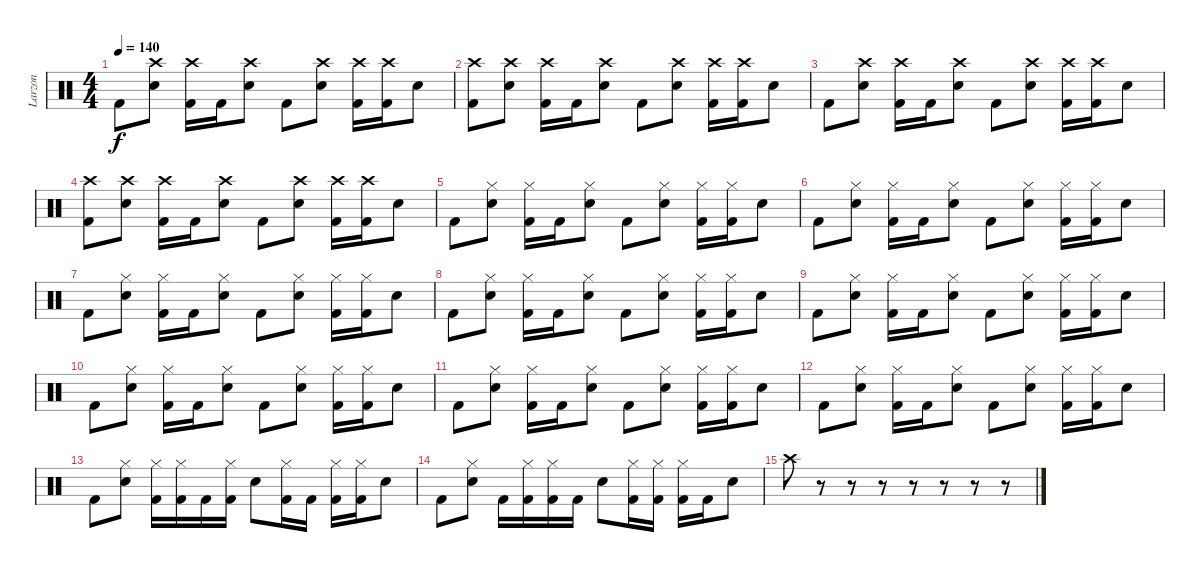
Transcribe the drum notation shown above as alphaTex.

\track ("Larzon" "Larzon") {instrument percussion}
\staff {score}
\articulation defaults
\ts (4 4)
\tempo 140
\clef neutral
\ks c "Kick (hit) 2".8{dy f}
("Crash high (hit)" "Snare (hit) 2").8 ("Crash high (hit)" "Kick (hit) 2").16 "Kick (hit) 2".16 ("Crash high (hit)" "Snare (hit) 2").8 "Kick (hit) 2".8 ("Crash high (hit)" "Snare (hit) 2").8 ("Crash high (hit)" "Kick (hit) 2").16 ("Crash high (hit)" "Kick (hit) 2").16 "Snare (hit) 2".8 |
("Crash high (hit)" "Kick (hit) 2").8 ("Crash high (hit)" "Snare (hit) 2").8 ("Crash high (hit)" "Kick (hit) 2").16 "Kick (hit) 2".16 ("Crash high (hit)" "Snare (hit) 2").8 "Kick (hit) 2".8 ("Crash high (hit)" "Snare (hit) 2").8 ("Crash high (hit)" "Kick (hit) 2").16 ("Crash high (hit)" "Kick (hit) 2").16 "Snare (hit) 2".8 |
"Kick (hit) 2".8 ("Crash high (hit)" "Snare (hit) 2").8 ("Crash high (hit)" "Kick (hit) 2").16 "Kick (hit) 2".16 ("Crash high (hit)" "Snare (hit) 2").8 "Kick (hit) 2".8 ("Crash high (hit)" "Snare (hit) 2").8 ("Crash high (hit)" "Kick (hit) 2").16 ("Crash high (hit)" "Kick (hit) 2").16 "Snare (hit) 2".8 |
("Crash high (hit)" "Kick (hit) 2").8 ("Crash high (hit)" "Snare (hit) 2").8 ("Crash high (hit)" "Kick (hit) 2").16 "Kick (hit) 2".16 ("Crash high (hit)" "Snare (hit) 2").8 "Kick (hit) 2".8 ("Crash high (hit)" "Snare (hit) 2").8 ("Crash high (hit)" "Kick (hit) 2").16 ("Crash high (hit)" "Kick (hit) 2").16 "Snare (hit) 2".8 |
"Kick (hit) 2".8 ("Hi-Hat (closed)" "Snare (hit) 2").8 ("Hi-Hat (closed)" "Kick (hit) 2").16 "Kick (hit) 2".16 ("Hi-Hat (closed)" "Snare (hit) 2").8 "Kick (hit) 2".8 ("Hi-Hat (closed)" "Snare (hit) 2").8 ("Hi-Hat (closed)" "Kick (hit) 2").16 ("Hi-Hat (closed)" "Kick (hit) 2").16 "Snare (hit) 2".8 |
"Kick (hit) 2".8 ("Hi-Hat (closed)" "Snare (hit) 2").8 ("Hi-Hat (closed)" "Kick (hit) 2").16 "Kick (hit) 2".16 ("Hi-Hat (closed)" "Snare (hit) 2").8 "Kick (hit) 2".8 ("Hi-Hat (closed)" "Snare (hit) 2").8 ("Hi-Hat (closed)" "Kick (hit) 2").16 ("Hi-Hat (closed)" "Kick (hit) 2").16 "Snare (hit) 2".8 |
"Kick (hit) 2".8 ("Hi-Hat (closed)" "Snare (hit) 2").8 ("Hi-Hat (closed)" "Kick (hit) 2").16 "Kick (hit) 2".16 ("Hi-Hat (closed)" "Snare (hit) 2").8 "Kick (hit) 2".8 ("Hi-Hat (closed)" "Snare (hit) 2").8 ("Hi-Hat (closed)" "Kick (hit) 2").16 ("Hi-Hat (closed)" "Kick (hit) 2").16 "Snare (hit) 2".8 |
"Kick (hit) 2".8 ("Hi-Hat (closed)" "Snare (hit) 2").8 ("Hi-Hat (closed)" "Kick (hit) 2").16 "Kick (hit) 2".16 ("Hi-Hat (closed)" "Snare (hit) 2").8 "Kick (hit) 2".8 ("Hi-Hat (closed)" "Snare (hit) 2").8 ("Hi-Hat (closed)" "Kick (hit) 2").16 ("Hi-Hat (closed)" "Kick (hit) 2").16 "Snare (hit) 2".8 |
"Kick (hit) 2".8 ("Hi-Hat (closed)" "Snare (hit) 2").8 ("Hi-Hat (closed)" "Kick (hit) 2").16 "Kick (hit) 2".16 ("Hi-Hat (closed)" "Snare (hit) 2").8 "Kick (hit) 2".8 ("Hi-Hat (closed)" "Snare (hit) 2").8 ("Hi-Hat (closed)" "Kick (hit) 2").16 ("Hi-Hat (closed)" "Kick (hit) 2").16 "Snare (hit) 2".8 |
"Kick (hit) 2".8 ("Hi-Hat (closed)" "Snare (hit) 2").8 ("Hi-Hat (closed)" "Kick (hit) 2").16 "Kick (hit) 2".16 ("Hi-Hat (closed)" "Snare (hit) 2").8 "Kick (hit) 2".8 ("Hi-Hat (closed)" "Snare (hit) 2").8 ("Hi-Hat (closed)" "Kick (hit) 2").16 ("Hi-Hat (closed)" "Kick (hit) 2").16 "Snare (hit) 2".8 |
"Kick (hit) 2".8 ("Hi-Hat (closed)" "Snare (hit) 2").8 ("Hi-Hat (closed)" "Kick (hit) 2").16 "Kick (hit) 2".16 ("Hi-Hat (closed)" "Snare (hit) 2").8 "Kick (hit) 2".8 ("Hi-Hat (closed)" "Snare (hit) 2").8 ("Hi-Hat (closed)" "Kick (hit) 2").16 ("Hi-Hat (closed)" "Kick (hit) 2").16 "Snare (hit) 2".8 |
"Kick (hit) 2".8 ("Hi-Hat (closed)" "Snare (hit) 2").8 ("Hi-Hat (closed)" "Kick (hit) 2").16 "Kick (hit) 2".16 ("Hi-Hat (closed)" "Snare (hit) 2").8 "Kick (hit) 2".8 ("Hi-Hat (closed)" "Snare (hit) 2").8 ("Hi-Hat (closed)" "Kick (hit) 2").16 ("Hi-Hat (closed)" "Kick (hit) 2").16 "Snare (hit) 2".8 |
"Kick (hit) 2".8 ("Hi-Hat (closed)" "Snare (hit) 2").8 ("Hi-Hat (closed)" "Kick (hit) 2").16 ("Hi-Hat (closed)" "Kick (hit) 2").16 "Kick (hit) 2".16 ("Hi-Hat (closed)" "Kick (hit) 2").16 "Snare (hit) 2".8 ("Hi-Hat (closed)" "Kick (hit) 2").16 "Kick (hit) 2".16 ("Hi-Hat (closed)" "Kick (hit) 2").16 ("Hi-Hat (closed)" "Kick (hit) 2").16 "Snare (hit) 2".8 |
"Kick (hit) 2".8 ("Hi-Hat (closed)" "Snare (hit) 2").8 "Kick (hit) 2".16 ("Hi-Hat (closed)" "Kick (hit) 2").16 ("Hi-Hat (closed)" "Kick (hit) 2").16 "Kick (hit) 2".16 "Snare (hit) 2".8 ("Hi-Hat (closed)" "Kick (hit) 2").16 ("Hi-Hat (closed)" "Kick (hit) 2").16 ("Hi-Hat (closed)" "Kick (hit) 2").16 "Kick (hit) 2".16 "Snare (hit) 2".8 |
"Crash high (hit)".8 r.8 r.8 r.8 r.8 r.8 r.8 r.8
